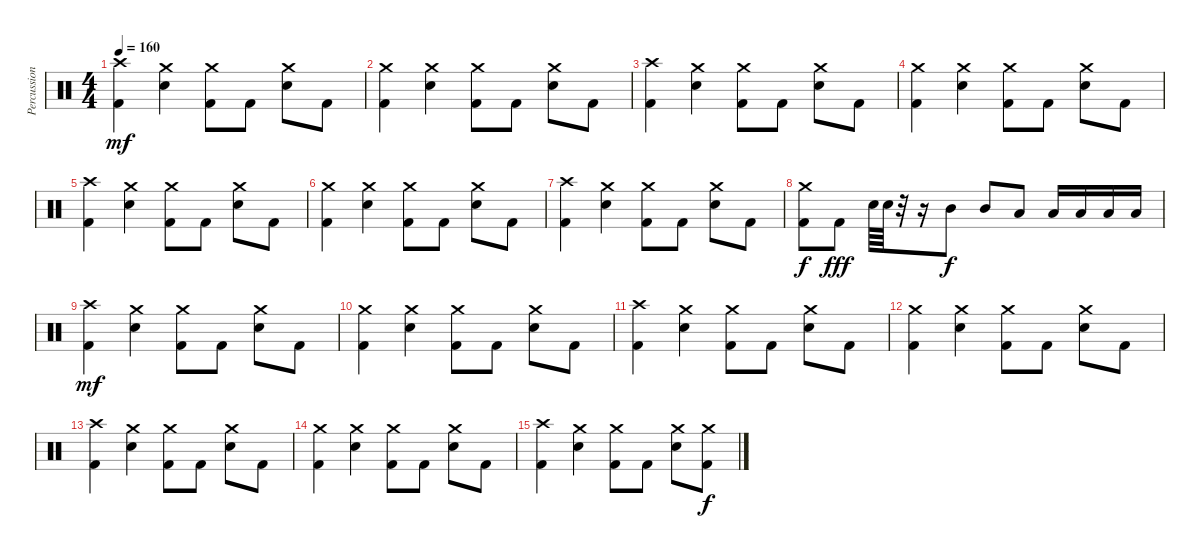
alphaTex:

\track ("Percussion" "Percussion") {instrument percussion}
\staff {score}
\articulation defaults
\ts (4 4)
\tempo 160
\clef neutral
\ks c
("Crash high (hit)" "Kick (hit) 2").4{dy mf} ("Crash medium (hit)" "Electric Snare (hit)").4 ("Crash medium (hit)" "Kick (hit) 2").8 "Kick (hit) 2".8 ("Crash medium (hit)" "Electric Snare (hit)").8 "Kick (hit) 2".8 |
("Crash medium (hit)" "Kick (hit) 2").4 ("Crash medium (hit)" "Electric Snare (hit)").4 ("Crash medium (hit)" "Kick (hit) 2").8 "Kick (hit) 2".8 ("Crash medium (hit)" "Electric Snare (hit)").8 "Kick (hit) 2".8 |
("Crash high (hit)" "Kick (hit) 2").4 ("Crash medium (hit)" "Electric Snare (hit)").4 ("Crash medium (hit)" "Kick (hit) 2").8 "Kick (hit) 2".8 ("Crash medium (hit)" "Electric Snare (hit)").8 "Kick (hit) 2".8 |
("Crash medium (hit)" "Kick (hit) 2").4 ("Crash medium (hit)" "Electric Snare (hit)").4 ("Crash medium (hit)" "Kick (hit) 2").8 "Kick (hit) 2".8 ("Crash medium (hit)" "Electric Snare (hit)").8 "Kick (hit) 2".8 |
("Crash high (hit)" "Kick (hit) 2").4 ("Crash medium (hit)" "Electric Snare (hit)").4 ("Crash medium (hit)" "Kick (hit) 2").8 "Kick (hit) 2".8 ("Crash medium (hit)" "Electric Snare (hit)").8 "Kick (hit) 2".8 |
("Crash medium (hit)" "Kick (hit) 2").4 ("Crash medium (hit)" "Electric Snare (hit)").4 ("Crash medium (hit)" "Kick (hit) 2").8 "Kick (hit) 2".8 ("Crash medium (hit)" "Electric Snare (hit)").8 "Kick (hit) 2".8 |
("Crash high (hit)" "Kick (hit) 2").4 ("Crash medium (hit)" "Electric Snare (hit)").4 ("Crash medium (hit)" "Kick (hit) 2").8 "Kick (hit) 2".8 ("Crash medium (hit)" "Electric Snare (hit)").8 "Kick (hit) 2".8 |
("Crash medium (hit)" "Kick (hit) 2").8{dy f} "Kick (hit) 2".8{dy fff} "Electric Snare (hit)".64 "Electric Snare (hit)".64 r.32 r.16 "Mid Tom (hit)".8{dy f} "Mid Tom (hit)".8 "Low Tom (hit)".8 "Low Tom (hit)".16 "Low Tom (hit)".16 "Low Floor Tom (hit)".16 "Low Floor Tom (hit)".16 |
("Crash high (hit)" "Kick (hit) 2").4{dy mf} ("Crash medium (hit)" "Electric Snare (hit)").4 ("Crash medium (hit)" "Kick (hit) 2").8 "Kick (hit) 2".8 ("Crash medium (hit)" "Electric Snare (hit)").8 "Kick (hit) 2".8 |
("Crash medium (hit)" "Kick (hit) 2").4 ("Crash medium (hit)" "Electric Snare (hit)").4 ("Crash medium (hit)" "Kick (hit) 2").8 "Kick (hit) 2".8 ("Crash medium (hit)" "Electric Snare (hit)").8 "Kick (hit) 2".8 |
("Crash high (hit)" "Kick (hit) 2").4 ("Crash medium (hit)" "Electric Snare (hit)").4 ("Crash medium (hit)" "Kick (hit) 2").8 "Kick (hit) 2".8 ("Crash medium (hit)" "Electric Snare (hit)").8 "Kick (hit) 2".8 |
("Crash medium (hit)" "Kick (hit) 2").4 ("Crash medium (hit)" "Electric Snare (hit)").4 ("Crash medium (hit)" "Kick (hit) 2").8 "Kick (hit) 2".8 ("Crash medium (hit)" "Electric Snare (hit)").8 "Kick (hit) 2".8 |
("Crash high (hit)" "Kick (hit) 2").4 ("Crash medium (hit)" "Electric Snare (hit)").4 ("Crash medium (hit)" "Kick (hit) 2").8 "Kick (hit) 2".8 ("Crash medium (hit)" "Electric Snare (hit)").8 "Kick (hit) 2".8 |
("Crash medium (hit)" "Kick (hit) 2").4 ("Crash medium (hit)" "Electric Snare (hit)").4 ("Crash medium (hit)" "Kick (hit) 2").8 "Kick (hit) 2".8 ("Crash medium (hit)" "Electric Snare (hit)").8 "Kick (hit) 2".8 |
("Crash high (hit)" "Kick (hit) 2").4 ("Crash medium (hit)" "Electric Snare (hit)").4 ("Crash medium (hit)" "Kick (hit) 2").8 "Kick (hit) 2".8 ("Crash medium (hit)" "Electric Snare (hit)").8 ("Crash medium (hit)" "Kick (hit) 2").8{dy f}
